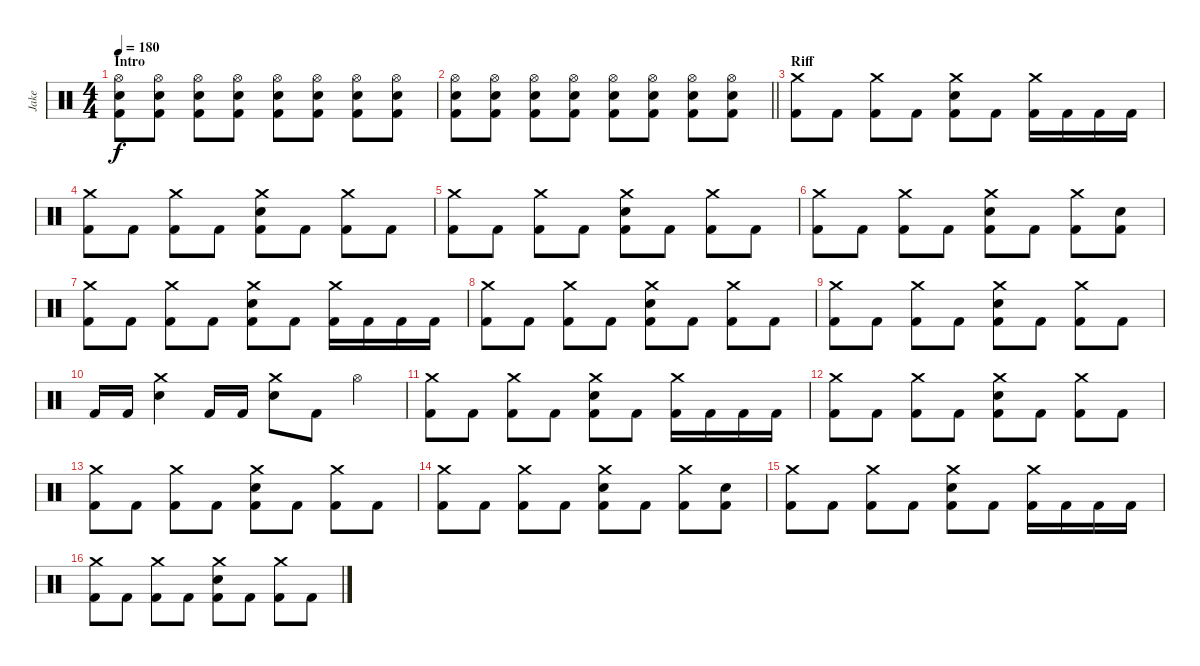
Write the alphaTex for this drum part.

\track ("Jake" "Jake") {instrument percussion}
\staff {score}
\articulation defaults
\ts (4 4)
\section ("" "Intro")
\tempo 180
\clef neutral
\ks c
("Hi-Hat (open)" "Electric Snare (hit)" "Kick (hit) 2").8{dy f} ("Hi-Hat (open)" "Electric Snare (hit)" "Kick (hit) 2").8 ("Hi-Hat (open)" "Electric Snare (hit)" "Kick (hit) 2").8 ("Hi-Hat (open)" "Electric Snare (hit)" "Kick (hit) 2").8 ("Hi-Hat (open)" "Electric Snare (hit)" "Kick (hit) 2").8 ("Hi-Hat (open)" "Electric Snare (hit)" "Kick (hit) 2").8 ("Hi-Hat (open)" "Electric Snare (hit)" "Kick (hit) 2").8 ("Hi-Hat (open)" "Electric Snare (hit)" "Kick (hit) 2").8 |
\barLineRight lightlight
("Hi-Hat (open)" "Electric Snare (hit)" "Kick (hit) 2").8 ("Hi-Hat (open)" "Electric Snare (hit)" "Kick (hit) 2").8 ("Hi-Hat (open)" "Electric Snare (hit)" "Kick (hit) 2").8 ("Hi-Hat (open)" "Electric Snare (hit)" "Kick (hit) 2").8 ("Hi-Hat (open)" "Electric Snare (hit)" "Kick (hit) 2").8 ("Hi-Hat (open)" "Electric Snare (hit)" "Kick (hit) 2").8 ("Hi-Hat (open)" "Electric Snare (hit)" "Kick (hit) 2").8 ("Hi-Hat (open)" "Electric Snare (hit)" "Kick (hit) 2").8 |
\section ("" "Riff")
("Crash medium (hit)" "Kick (hit) 2").8 "Kick (hit) 2".8 ("Crash medium (hit)" "Kick (hit) 2").8 "Kick (hit) 2".8 ("Crash medium (hit)" "Electric Snare (hit)" "Kick (hit) 2").8 "Kick (hit) 2".8 ("Crash medium (hit)" "Kick (hit) 2").16 "Kick (hit) 2".16 "Kick (hit) 2".16 "Kick (hit) 2".16 |
("Crash medium (hit)" "Kick (hit) 2").8 "Kick (hit) 2".8 ("Crash medium (hit)" "Kick (hit) 2").8 "Kick (hit) 2".8 ("Crash medium (hit)" "Electric Snare (hit)" "Kick (hit) 2").8 "Kick (hit) 2".8 ("Crash medium (hit)" "Kick (hit) 2").8 "Kick (hit) 2".8 |
("Crash medium (hit)" "Kick (hit) 2").8 "Kick (hit) 2".8 ("Crash medium (hit)" "Kick (hit) 2").8 "Kick (hit) 2".8 ("Crash medium (hit)" "Electric Snare (hit)" "Kick (hit) 2").8 "Kick (hit) 2".8 ("Crash medium (hit)" "Kick (hit) 2").8 "Kick (hit) 2".8 |
("Crash medium (hit)" "Kick (hit) 2").8 "Kick (hit) 2".8 ("Crash medium (hit)" "Kick (hit) 2").8 "Kick (hit) 2".8 ("Crash medium (hit)" "Electric Snare (hit)" "Kick (hit) 2").8 "Kick (hit) 2".8 ("Crash medium (hit)" "Kick (hit) 2").8 ("Electric Snare (hit)" "Kick (hit) 2").8 |
("Crash medium (hit)" "Kick (hit) 2").8 "Kick (hit) 2".8 ("Crash medium (hit)" "Kick (hit) 2").8 "Kick (hit) 2".8 ("Crash medium (hit)" "Electric Snare (hit)" "Kick (hit) 2").8 "Kick (hit) 2".8 ("Crash medium (hit)" "Kick (hit) 2").16 "Kick (hit) 2".16 "Kick (hit) 2".16 "Kick (hit) 2".16 |
("Crash medium (hit)" "Kick (hit) 2").8 "Kick (hit) 2".8 ("Crash medium (hit)" "Kick (hit) 2").8 "Kick (hit) 2".8 ("Crash medium (hit)" "Electric Snare (hit)" "Kick (hit) 2").8 "Kick (hit) 2".8 ("Crash medium (hit)" "Kick (hit) 2").8 "Kick (hit) 2".8 |
("Crash medium (hit)" "Kick (hit) 2").8 "Kick (hit) 2".8 ("Crash medium (hit)" "Kick (hit) 2").8 "Kick (hit) 2".8 ("Crash medium (hit)" "Electric Snare (hit)" "Kick (hit) 2").8 "Kick (hit) 2".8 ("Crash medium (hit)" "Kick (hit) 2").8 "Kick (hit) 2".8 |
"Kick (hit) 2".16 "Kick (hit) 2".16 ("Crash medium (hit)" "Electric Snare (hit)").4 "Kick (hit) 2".16 "Kick (hit) 2".16 ("Crash medium (hit)" "Electric Snare (hit)").8 "Kick (hit) 2".8 "Hi-Hat (open)".4 |
("Crash medium (hit)" "Kick (hit) 2").8 "Kick (hit) 2".8 ("Crash medium (hit)" "Kick (hit) 2").8 "Kick (hit) 2".8 ("Crash medium (hit)" "Electric Snare (hit)" "Kick (hit) 2").8 "Kick (hit) 2".8 ("Crash medium (hit)" "Kick (hit) 2").16 "Kick (hit) 2".16 "Kick (hit) 2".16 "Kick (hit) 2".16 |
("Crash medium (hit)" "Kick (hit) 2").8 "Kick (hit) 2".8 ("Crash medium (hit)" "Kick (hit) 2").8 "Kick (hit) 2".8 ("Crash medium (hit)" "Electric Snare (hit)" "Kick (hit) 2").8 "Kick (hit) 2".8 ("Crash medium (hit)" "Kick (hit) 2").8 "Kick (hit) 2".8 |
("Crash medium (hit)" "Kick (hit) 2").8 "Kick (hit) 2".8 ("Crash medium (hit)" "Kick (hit) 2").8 "Kick (hit) 2".8 ("Crash medium (hit)" "Electric Snare (hit)" "Kick (hit) 2").8 "Kick (hit) 2".8 ("Crash medium (hit)" "Kick (hit) 2").8 "Kick (hit) 2".8 |
("Crash medium (hit)" "Kick (hit) 2").8 "Kick (hit) 2".8 ("Crash medium (hit)" "Kick (hit) 2").8 "Kick (hit) 2".8 ("Crash medium (hit)" "Electric Snare (hit)" "Kick (hit) 2").8 "Kick (hit) 2".8 ("Crash medium (hit)" "Kick (hit) 2").8 ("Electric Snare (hit)" "Kick (hit) 2").8 |
("Crash medium (hit)" "Kick (hit) 2").8 "Kick (hit) 2".8 ("Crash medium (hit)" "Kick (hit) 2").8 "Kick (hit) 2".8 ("Crash medium (hit)" "Electric Snare (hit)" "Kick (hit) 2").8 "Kick (hit) 2".8 ("Crash medium (hit)" "Kick (hit) 2").16 "Kick (hit) 2".16 "Kick (hit) 2".16 "Kick (hit) 2".16 |
("Crash medium (hit)" "Kick (hit) 2").8 "Kick (hit) 2".8 ("Crash medium (hit)" "Kick (hit) 2").8 "Kick (hit) 2".8 ("Crash medium (hit)" "Electric Snare (hit)" "Kick (hit) 2").8 "Kick (hit) 2".8 ("Crash medium (hit)" "Kick (hit) 2").8 "Kick (hit) 2".8
